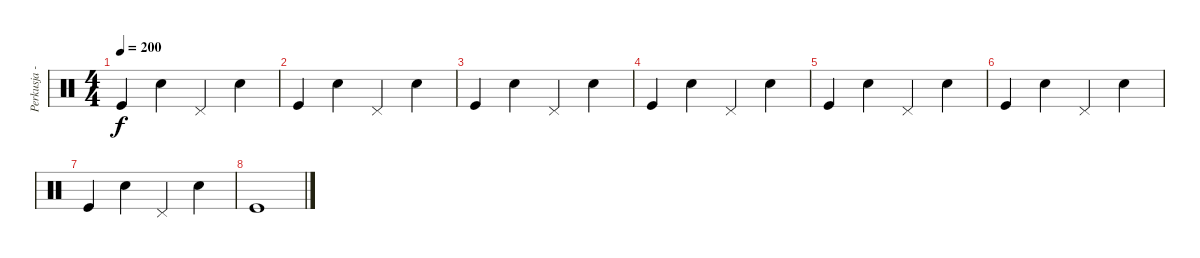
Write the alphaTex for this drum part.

\track ("Perkusja - J. Olejarz" "Perkusja -") {instrument percussion}
\staff {score}
\articulation defaults
\ts (4 4)
\tempo 200
\clef neutral
\ks c "Kick (hit)".4{dy f} "Electric Snare (hit)".4 "Pedal Hi-Hat (hit)".4 "Electric Snare (hit)".4
|
"Kick (hit)".4 "Electric Snare (hit)".4 "Pedal Hi-Hat (hit)".4 "Electric Snare (hit)".4 |
"Kick (hit)".4 "Electric Snare (hit)".4 "Pedal Hi-Hat (hit)".4 "Electric Snare (hit)".4 |
"Kick (hit)".4 "Electric Snare (hit)".4 "Pedal Hi-Hat (hit)".4 "Electric Snare (hit)".4 |
"Kick (hit)".4 "Electric Snare (hit)".4 "Pedal Hi-Hat (hit)".4 "Electric Snare (hit)".4 |
"Kick (hit)".4 "Electric Snare (hit)".4 "Pedal Hi-Hat (hit)".4 "Electric Snare (hit)".4 |
"Kick (hit)".4 "Electric Snare (hit)".4 "Pedal Hi-Hat (hit)".4 "Electric Snare (hit)".4 |
"Kick (hit)".1
